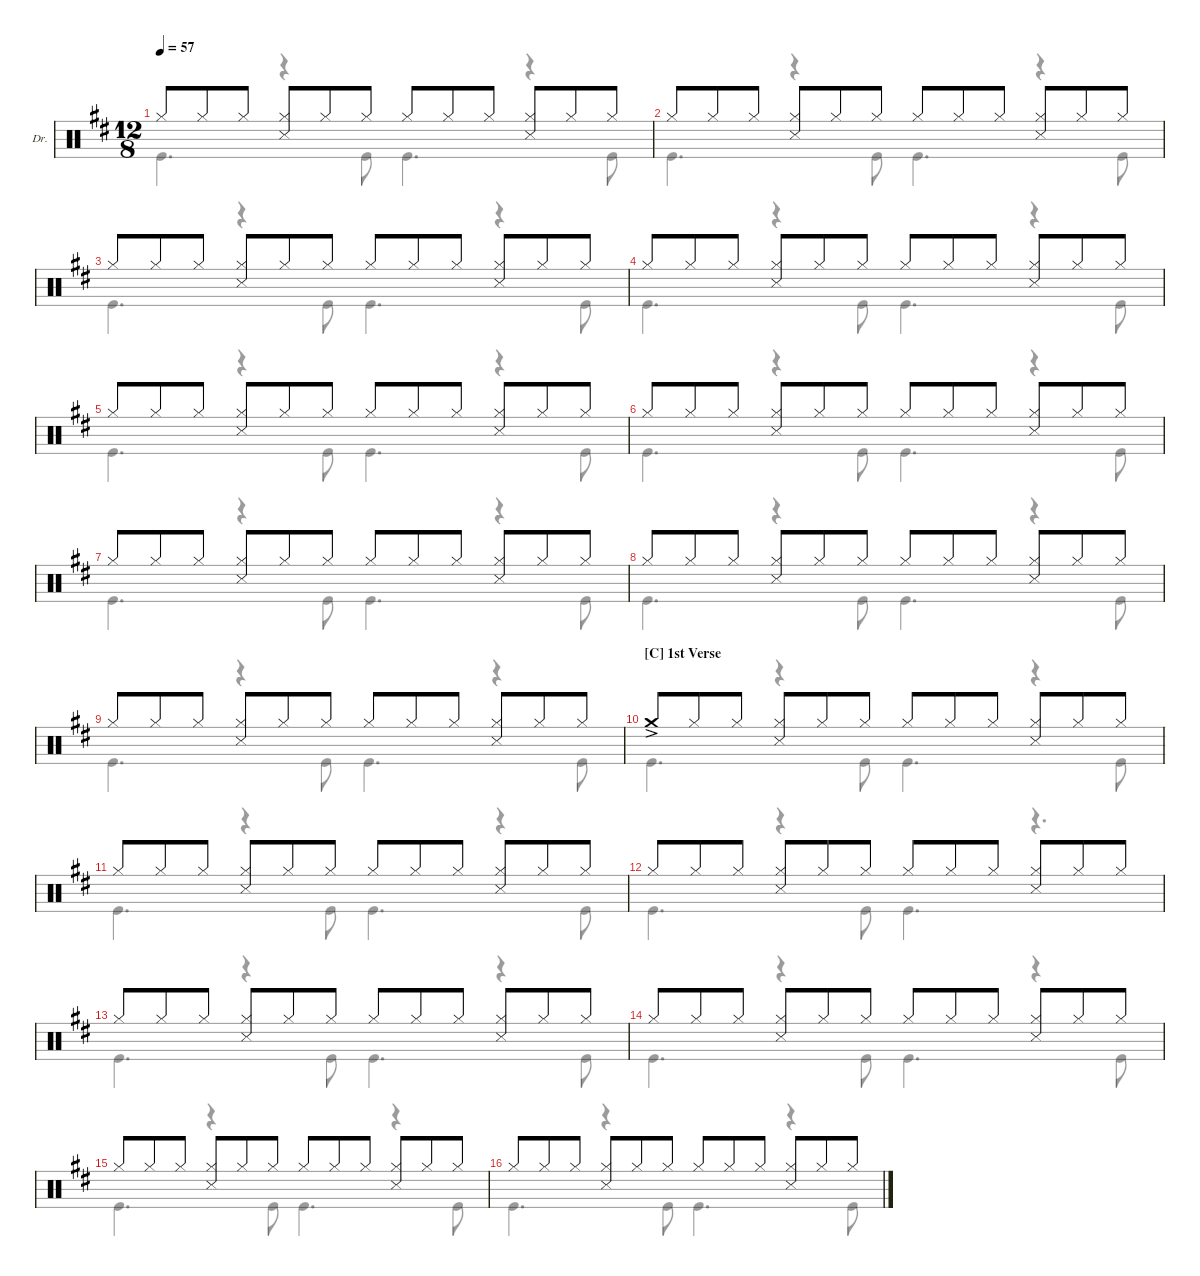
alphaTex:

\defaultSystemsLayout 4
\hideDynamics
\bracketExtendMode groupsimilarinstruments
\firstSystemTrackNameOrientation horizontal
\otherSystemsTrackNameOrientation horizontal
\track ("Drums" "Dr.") {instrument percussion}
\staff {score}
\articulation defaults
\voice
\ts (12 8)
\tempo 57
\clef neutral
\ks d "Hi-Hat (closed)".8{dy p} "Hi-Hat (closed)".8 "Hi-Hat (closed)".8
("Hi-Hat (closed)" "Snare (side stick) 3").8 "Hi-Hat (closed)".8 "Hi-Hat (closed)".8 "Hi-Hat (closed)".8 "Hi-Hat (closed)".8 "Hi-Hat (closed)".8 ("Hi-Hat (closed)" "Snare (side stick) 3").8 "Hi-Hat (closed)".8 "Hi-Hat (closed)".8 |
"Hi-Hat (closed)".8 "Hi-Hat (closed)".8 "Hi-Hat (closed)".8 ("Hi-Hat (closed)" "Snare (side stick) 3").8 "Hi-Hat (closed)".8 "Hi-Hat (closed)".8 "Hi-Hat (closed)".8 "Hi-Hat (closed)".8 "Hi-Hat (closed)".8 ("Hi-Hat (closed)" "Snare (side stick) 3").8 "Hi-Hat (closed)".8 "Hi-Hat (closed)".8 |
"Hi-Hat (closed)".8 "Hi-Hat (closed)".8 "Hi-Hat (closed)".8 ("Hi-Hat (closed)" "Snare (side stick) 3").8 "Hi-Hat (closed)".8 "Hi-Hat (closed)".8 "Hi-Hat (closed)".8 "Hi-Hat (closed)".8 "Hi-Hat (closed)".8 ("Hi-Hat (closed)" "Snare (side stick) 3").8 "Hi-Hat (closed)".8 "Hi-Hat (closed)".8 |
"Hi-Hat (closed)".8 "Hi-Hat (closed)".8 "Hi-Hat (closed)".8 ("Hi-Hat (closed)" "Snare (side stick) 3").8 "Hi-Hat (closed)".8 "Hi-Hat (closed)".8 "Hi-Hat (closed)".8 "Hi-Hat (closed)".8 "Hi-Hat (closed)".8 ("Hi-Hat (closed)" "Snare (side stick) 3").8 "Hi-Hat (closed)".8 "Hi-Hat (closed)".8 |
"Hi-Hat (closed)".8 "Hi-Hat (closed)".8 "Hi-Hat (closed)".8 ("Hi-Hat (closed)" "Snare (side stick) 3").8 "Hi-Hat (closed)".8 "Hi-Hat (closed)".8 "Hi-Hat (closed)".8 "Hi-Hat (closed)".8 "Hi-Hat (closed)".8 ("Hi-Hat (closed)" "Snare (side stick) 3").8 "Hi-Hat (closed)".8 "Hi-Hat (closed)".8 |
"Hi-Hat (closed)".8 "Hi-Hat (closed)".8 "Hi-Hat (closed)".8 ("Hi-Hat (closed)" "Snare (side stick) 3").8 "Hi-Hat (closed)".8 "Hi-Hat (closed)".8 "Hi-Hat (closed)".8 "Hi-Hat (closed)".8 "Hi-Hat (closed)".8 ("Hi-Hat (closed)" "Snare (side stick) 3").8 "Hi-Hat (closed)".8 "Hi-Hat (closed)".8 |
"Hi-Hat (closed)".8 "Hi-Hat (closed)".8 "Hi-Hat (closed)".8 ("Hi-Hat (closed)" "Snare (side stick) 3").8 "Hi-Hat (closed)".8 "Hi-Hat (closed)".8 "Hi-Hat (closed)".8 "Hi-Hat (closed)".8 "Hi-Hat (closed)".8 ("Hi-Hat (closed)" "Snare (side stick) 3").8 "Hi-Hat (closed)".8 "Hi-Hat (closed)".8 |
"Hi-Hat (closed)".8 "Hi-Hat (closed)".8 "Hi-Hat (closed)".8 ("Hi-Hat (closed)" "Snare (side stick) 3").8 "Hi-Hat (closed)".8 "Hi-Hat (closed)".8 "Hi-Hat (closed)".8 "Hi-Hat (closed)".8 "Hi-Hat (closed)".8 ("Hi-Hat (closed)" "Snare (side stick) 3").8 "Hi-Hat (closed)".8 "Hi-Hat (closed)".8 |
"Hi-Hat (closed)".8 "Hi-Hat (closed)".8 "Hi-Hat (closed)".8 ("Hi-Hat (closed)" "Snare (side stick) 3").8 "Hi-Hat (closed)".8 "Hi-Hat (closed)".8 "Hi-Hat (closed)".8 "Hi-Hat (closed)".8 "Hi-Hat (closed)".8 ("Hi-Hat (closed)" "Snare (side stick) 3").8 "Hi-Hat (closed)".8 "Hi-Hat (closed)".8 |
\section ("C" "1st Verse")
"Crash medium (hit)"{ac}.8 "Hi-Hat (closed)".8 "Hi-Hat (closed)".8 ("Hi-Hat (closed)" "Snare (side stick) 3").8 "Hi-Hat (closed)".8 "Hi-Hat (closed)".8 "Hi-Hat (closed)".8 "Hi-Hat (closed)".8 "Hi-Hat (closed)".8 ("Hi-Hat (closed)" "Snare (side stick) 3").8 "Hi-Hat (closed)".8 "Hi-Hat (closed)".8 |
"Hi-Hat (closed)".8 "Hi-Hat (closed)".8 "Hi-Hat (closed)".8 ("Hi-Hat (closed)" "Snare (side stick) 3").8 "Hi-Hat (closed)".8 "Hi-Hat (closed)".8 "Hi-Hat (closed)".8 "Hi-Hat (closed)".8 "Hi-Hat (closed)".8 ("Hi-Hat (closed)" "Snare (side stick) 3").8 "Hi-Hat (closed)".8 "Hi-Hat (closed)".8 |
"Hi-Hat (closed)".8 "Hi-Hat (closed)".8 "Hi-Hat (closed)".8 ("Hi-Hat (closed)" "Snare (side stick) 3").8 "Hi-Hat (closed)".8 "Hi-Hat (closed)".8 "Hi-Hat (closed)".8 "Hi-Hat (closed)".8 "Hi-Hat (closed)".8 ("Hi-Hat (closed)" "Snare (side stick) 3").8 "Hi-Hat (closed)".8 "Hi-Hat (closed)".8 |
"Hi-Hat (closed)".8 "Hi-Hat (closed)".8 "Hi-Hat (closed)".8 ("Hi-Hat (closed)" "Snare (side stick) 3").8 "Hi-Hat (closed)".8 "Hi-Hat (closed)".8 "Hi-Hat (closed)".8 "Hi-Hat (closed)".8 "Hi-Hat (closed)".8 ("Hi-Hat (closed)" "Snare (side stick) 3").8 "Hi-Hat (closed)".8 "Hi-Hat (closed)".8 |
"Hi-Hat (closed)".8 "Hi-Hat (closed)".8 "Hi-Hat (closed)".8 ("Hi-Hat (closed)" "Snare (side stick) 3").8 "Hi-Hat (closed)".8 "Hi-Hat (closed)".8 "Hi-Hat (closed)".8 "Hi-Hat (closed)".8 "Hi-Hat (closed)".8 ("Hi-Hat (closed)" "Snare (side stick) 3").8 "Hi-Hat (closed)".8 "Hi-Hat (closed)".8 |
"Hi-Hat (closed)".8 "Hi-Hat (closed)".8 "Hi-Hat (closed)".8 ("Hi-Hat (closed)" "Snare (side stick) 3").8 "Hi-Hat (closed)".8 "Hi-Hat (closed)".8 "Hi-Hat (closed)".8 "Hi-Hat (closed)".8 "Hi-Hat (closed)".8 ("Hi-Hat (closed)" "Snare (side stick) 3").8 "Hi-Hat (closed)".8 "Hi-Hat (closed)".8 |
"Hi-Hat (closed)".8 "Hi-Hat (closed)".8 "Hi-Hat (closed)".8 ("Hi-Hat (closed)" "Snare (side stick) 3").8 "Hi-Hat (closed)".8 "Hi-Hat (closed)".8 "Hi-Hat (closed)".8 "Hi-Hat (closed)".8 "Hi-Hat (closed)".8 ("Hi-Hat (closed)" "Snare (side stick) 3").8 "Hi-Hat (closed)".8 "Hi-Hat (closed)".8
\voice
\clef neutral
\ottava regular
\simile none
\ks d "Kick (hit)".4{d dy p}
r.4 "Kick (hit)".8 "Kick (hit)".4{d} r.4 "Kick (hit)".8 |
"Kick (hit)".4{d} r.4 "Kick (hit)".8 "Kick (hit)".4{d} r.4 "Kick (hit)".8 |
"Kick (hit)".4{d} r.4 "Kick (hit)".8 "Kick (hit)".4{d} r.4 "Kick (hit)".8 |
"Kick (hit)".4{d} r.4 "Kick (hit)".8 "Kick (hit)".4{d} r.4 "Kick (hit)".8 |
"Kick (hit)".4{d} r.4 "Kick (hit)".8 "Kick (hit)".4{d} r.4 "Kick (hit)".8 |
"Kick (hit)".4{d} r.4 "Kick (hit)".8 "Kick (hit)".4{d} r.4 "Kick (hit)".8 |
"Kick (hit)".4{d} r.4 "Kick (hit)".8 "Kick (hit)".4{d} r.4 "Kick (hit)".8 |
"Kick (hit)".4{d} r.4 "Kick (hit)".8 "Kick (hit)".4{d} r.4 "Kick (hit)".8 |
"Kick (hit)".4{d} r.4 "Kick (hit)".8 "Kick (hit)".4{d} r.4 "Kick (hit)".8 |
"Kick (hit)".4{d} r.4 "Kick (hit)".8 "Kick (hit)".4{d} r.4 "Kick (hit)".8 |
"Kick (hit)".4{d} r.4 "Kick (hit)".8 "Kick (hit)".4{d} r.4 "Kick (hit)".8 |
"Kick (hit)".4{d} r.4 "Kick (hit)".8 "Kick (hit)".4{d} r.4{d} |
"Kick (hit)".4{d} r.4 "Kick (hit)".8 "Kick (hit)".4{d} r.4 "Kick (hit)".8 |
"Kick (hit)".4{d} r.4 "Kick (hit)".8 "Kick (hit)".4{d} r.4 "Kick (hit)".8 |
"Kick (hit)".4{d} r.4 "Kick (hit)".8 "Kick (hit)".4{d} r.4 "Kick (hit)".8 |
"Kick (hit)".4{d} r.4 "Kick (hit)".8 "Kick (hit)".4{d} r.4 "Kick (hit)".8
